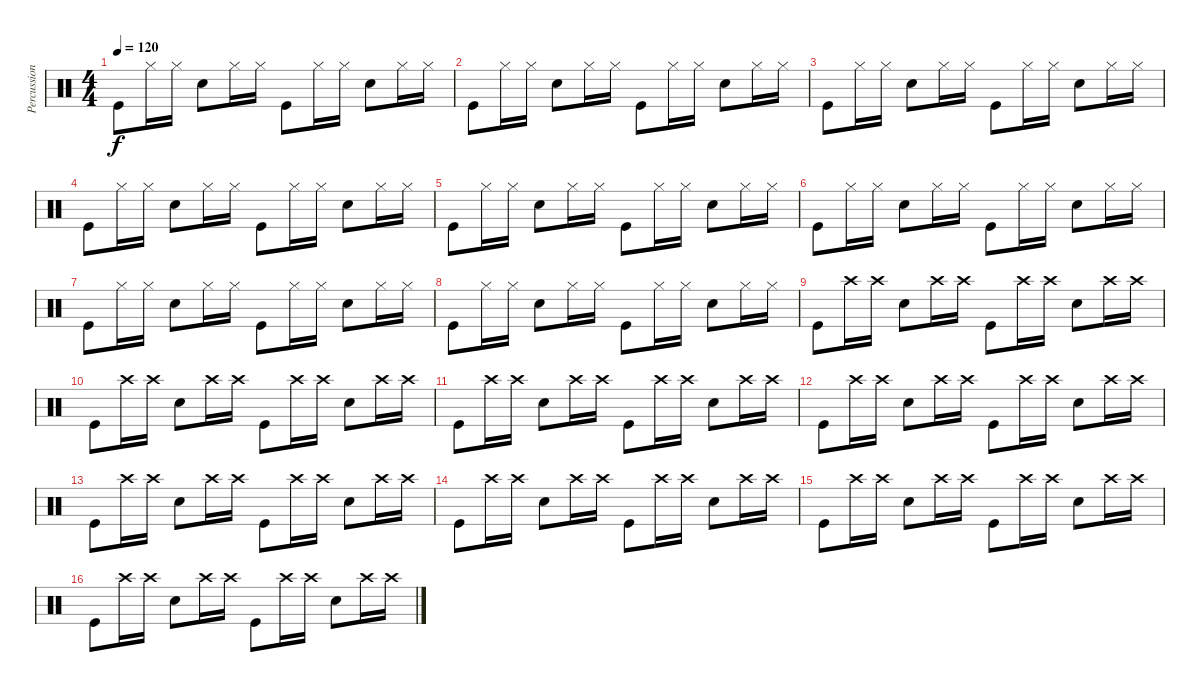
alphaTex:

\track ("Percussion" "Percussion") {instrument percussion}
\staff {score}
\articulation defaults
\ts (4 4)
\tempo 120
\clef neutral
\ks c "Kick (hit)".8{dy f} "Hi-Hat (closed)".16 "Hi-Hat (closed)".16 "Snare (hit) 2".8 "Hi-Hat (closed)".16 "Hi-Hat (closed)".16 "Kick (hit)".8 "Hi-Hat (closed)".16 "Hi-Hat (closed)".16 "Snare (hit) 2".8 "Hi-Hat (closed)".16 "Hi-Hat (closed)".16
|
"Kick (hit)".8 "Hi-Hat (closed)".16 "Hi-Hat (closed)".16 "Snare (hit) 2".8 "Hi-Hat (closed)".16 "Hi-Hat (closed)".16 "Kick (hit)".8 "Hi-Hat (closed)".16 "Hi-Hat (closed)".16 "Snare (hit) 2".8 "Hi-Hat (closed)".16 "Hi-Hat (closed)".16 |
"Kick (hit)".8 "Hi-Hat (closed)".16 "Hi-Hat (closed)".16 "Snare (hit) 2".8 "Hi-Hat (closed)".16 "Hi-Hat (closed)".16 "Kick (hit)".8 "Hi-Hat (closed)".16 "Hi-Hat (closed)".16 "Snare (hit) 2".8 "Hi-Hat (closed)".16 "Hi-Hat (closed)".16 |
"Kick (hit)".8 "Hi-Hat (closed)".16 "Hi-Hat (closed)".16 "Snare (hit) 2".8 "Hi-Hat (closed)".16 "Hi-Hat (closed)".16 "Kick (hit)".8 "Hi-Hat (closed)".16 "Hi-Hat (closed)".16 "Snare (hit) 2".8 "Hi-Hat (closed)".16 "Hi-Hat (closed)".16 |
"Kick (hit)".8 "Hi-Hat (closed)".16 "Hi-Hat (closed)".16 "Snare (hit) 2".8 "Hi-Hat (closed)".16 "Hi-Hat (closed)".16 "Kick (hit)".8 "Hi-Hat (closed)".16 "Hi-Hat (closed)".16 "Snare (hit) 2".8 "Hi-Hat (closed)".16 "Hi-Hat (closed)".16 |
"Kick (hit)".8 "Hi-Hat (closed)".16 "Hi-Hat (closed)".16 "Snare (hit) 2".8 "Hi-Hat (closed)".16 "Hi-Hat (closed)".16 "Kick (hit)".8 "Hi-Hat (closed)".16 "Hi-Hat (closed)".16 "Snare (hit) 2".8 "Hi-Hat (closed)".16 "Hi-Hat (closed)".16 |
"Kick (hit)".8 "Hi-Hat (closed)".16 "Hi-Hat (closed)".16 "Snare (hit) 2".8 "Hi-Hat (closed)".16 "Hi-Hat (closed)".16 "Kick (hit)".8 "Hi-Hat (closed)".16 "Hi-Hat (closed)".16 "Snare (hit) 2".8 "Hi-Hat (closed)".16 "Hi-Hat (closed)".16 |
"Kick (hit)".8 "Hi-Hat (closed)".16 "Hi-Hat (closed)".16 "Snare (hit) 2".8 "Hi-Hat (closed)".16 "Hi-Hat (closed)".16 "Kick (hit)".8 "Hi-Hat (closed)".16 "Hi-Hat (closed)".16 "Snare (hit) 2".8 "Hi-Hat (closed)".16 "Hi-Hat (closed)".16 |
"Kick (hit)".8 "Crash high (hit)".16 "Crash high (hit)".16 "Snare (hit) 2".8 "Crash high (hit)".16 "Crash high (hit)".16 "Kick (hit)".8 "Crash high (hit)".16 "Crash high (hit)".16 "Snare (hit) 2".8 "Crash high (hit)".16 "Crash high (hit)".16 |
"Kick (hit)".8 "Crash high (hit)".16 "Crash high (hit)".16 "Snare (hit) 2".8 "Crash high (hit)".16 "Crash high (hit)".16 "Kick (hit)".8 "Crash high (hit)".16 "Crash high (hit)".16 "Snare (hit) 2".8 "Crash high (hit)".16 "Crash high (hit)".16 |
"Kick (hit)".8 "Crash high (hit)".16 "Crash high (hit)".16 "Snare (hit) 2".8 "Crash high (hit)".16 "Crash high (hit)".16 "Kick (hit)".8 "Crash high (hit)".16 "Crash high (hit)".16 "Snare (hit) 2".8 "Crash high (hit)".16 "Crash high (hit)".16 |
"Kick (hit)".8 "Crash high (hit)".16 "Crash high (hit)".16 "Snare (hit) 2".8 "Crash high (hit)".16 "Crash high (hit)".16 "Kick (hit)".8 "Crash high (hit)".16 "Crash high (hit)".16 "Snare (hit) 2".8 "Crash high (hit)".16 "Crash high (hit)".16 |
"Kick (hit)".8 "Crash high (hit)".16 "Crash high (hit)".16 "Snare (hit) 2".8 "Crash high (hit)".16 "Crash high (hit)".16 "Kick (hit)".8 "Crash high (hit)".16 "Crash high (hit)".16 "Snare (hit) 2".8 "Crash high (hit)".16 "Crash high (hit)".16 |
"Kick (hit)".8 "Crash high (hit)".16 "Crash high (hit)".16 "Snare (hit) 2".8 "Crash high (hit)".16 "Crash high (hit)".16 "Kick (hit)".8 "Crash high (hit)".16 "Crash high (hit)".16 "Snare (hit) 2".8 "Crash high (hit)".16 "Crash high (hit)".16 |
"Kick (hit)".8 "Crash high (hit)".16 "Crash high (hit)".16 "Snare (hit) 2".8 "Crash high (hit)".16 "Crash high (hit)".16 "Kick (hit)".8 "Crash high (hit)".16 "Crash high (hit)".16 "Snare (hit) 2".8 "Crash high (hit)".16 "Crash high (hit)".16 |
"Kick (hit)".8 "Crash high (hit)".16 "Crash high (hit)".16 "Snare (hit) 2".8 "Crash high (hit)".16 "Crash high (hit)".16 "Kick (hit)".8 "Crash high (hit)".16 "Crash high (hit)".16 "Snare (hit) 2".8 "Crash high (hit)".16 "Crash high (hit)".16
